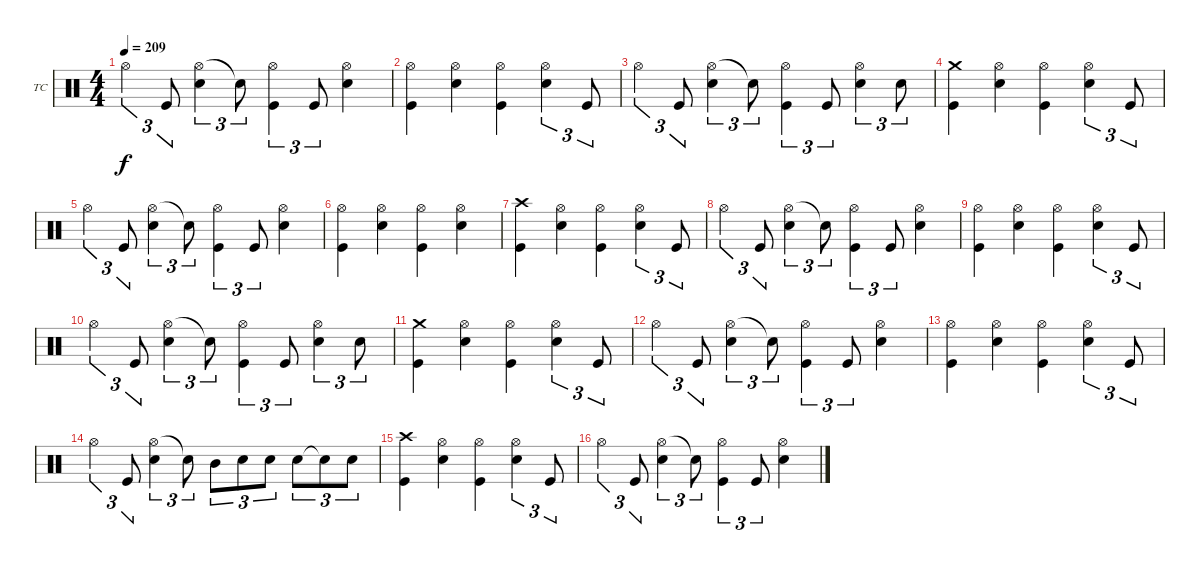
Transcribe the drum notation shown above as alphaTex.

\defaultSystemsLayout 4
\bracketExtendMode groupsimilarinstruments
\firstSystemTrackNameOrientation horizontal
\otherSystemsTrackNameOrientation horizontal
\track ("Drums - Tre Cool" "TC") {instrument percussion}
\staff {score}
\articulation defaults
\ts (4 4)
\tempo 209
\clef neutral
\ks c "Hi-Hat (open)".4{tu (3 2) dy f} "Kick (hit)".8{tu (3 2)}
("Hi-Hat (open)" "Snare (hit) 2").4{tu (3 2)} "Snare (hit) 2"{t}.8{tu (3 2)} ("Hi-Hat (open)" "Kick (hit)").4{tu (3 2)} "Kick (hit)".8{tu (3 2)} ("Hi-Hat (open)" "Snare (hit) 2").4 |
("Hi-Hat (open)" "Kick (hit)").4 ("Hi-Hat (open)" "Snare (hit) 2").4 ("Hi-Hat (open)" "Kick (hit)").4 ("Hi-Hat (open)" "Snare (hit) 2").4{tu (3 2)} "Kick (hit)".8{tu (3 2)} |
"Hi-Hat (open)".4{tu (3 2)} "Kick (hit)".8{tu (3 2)} ("Hi-Hat (open)" "Snare (hit) 2").4{tu (3 2)} "Snare (hit) 2"{t}.8{tu (3 2)} ("Hi-Hat (open)" "Kick (hit)").4{tu (3 2)} "Kick (hit)".8{tu (3 2)} ("Hi-Hat (open)" "Snare (hit) 2").4{tu (3 2)} "Snare (hit) 2".8{tu (3 2)} |
("Crash medium (hit)" "Kick (hit)").4 ("Hi-Hat (open)" "Snare (hit) 2").4 ("Hi-Hat (open)" "Kick (hit)").4 ("Hi-Hat (open)" "Snare (hit) 2").4{tu (3 2)} "Kick (hit)".8{tu (3 2)} |
"Hi-Hat (open)".4{tu (3 2)} "Kick (hit)".8{tu (3 2)} ("Hi-Hat (open)" "Snare (hit) 2").4{tu (3 2)} "Snare (hit) 2"{t}.8{tu (3 2)} ("Hi-Hat (open)" "Kick (hit)").4{tu (3 2)} "Kick (hit)".8{tu (3 2)} ("Hi-Hat (open)" "Snare (hit) 2").4 |
("Hi-Hat (open)" "Kick (hit)").4 ("Hi-Hat (open)" "Snare (hit) 2").4 ("Hi-Hat (open)" "Kick (hit)").4 ("Hi-Hat (open)" "Snare (hit) 2").4 |
("Crash high (hit)" "Kick (hit)").4 ("Hi-Hat (open)" "Snare (hit) 2").4 ("Hi-Hat (open)" "Kick (hit)").4 ("Hi-Hat (open)" "Snare (hit) 2").4{tu (3 2)} "Kick (hit)".8{tu (3 2)} |
"Hi-Hat (open)".4{tu (3 2)} "Kick (hit)".8{tu (3 2)} ("Hi-Hat (open)" "Snare (hit) 2").4{tu (3 2)} "Snare (hit) 2"{t}.8{tu (3 2)} ("Hi-Hat (open)" "Kick (hit)").4{tu (3 2)} "Kick (hit)".8{tu (3 2)} ("Hi-Hat (open)" "Snare (hit) 2").4 |
("Hi-Hat (open)" "Kick (hit)").4 ("Hi-Hat (open)" "Snare (hit) 2").4 ("Hi-Hat (open)" "Kick (hit)").4 ("Hi-Hat (open)" "Snare (hit) 2").4{tu (3 2)} "Kick (hit)".8{tu (3 2)} |
"Hi-Hat (open)".4{tu (3 2)} "Kick (hit)".8{tu (3 2)} ("Hi-Hat (open)" "Snare (hit) 2").4{tu (3 2)} "Snare (hit) 2"{t}.8{tu (3 2)} ("Hi-Hat (open)" "Kick (hit)").4{tu (3 2)} "Kick (hit)".8{tu (3 2)} ("Hi-Hat (open)" "Snare (hit) 2").4{tu (3 2)} "Snare (hit) 2".8{tu (3 2)} |
("Crash medium (hit)" "Kick (hit)").4 ("Hi-Hat (open)" "Snare (hit) 2").4 ("Hi-Hat (open)" "Kick (hit)").4 ("Hi-Hat (open)" "Snare (hit) 2").4{tu (3 2)} "Kick (hit)".8{tu (3 2)} |
"Hi-Hat (open)".4{tu (3 2)} "Kick (hit)".8{tu (3 2)} ("Hi-Hat (open)" "Snare (hit) 2").4{tu (3 2)} "Snare (hit) 2"{t}.8{tu (3 2)} ("Hi-Hat (open)" "Kick (hit)").4{tu (3 2)} "Kick (hit)".8{tu (3 2)} ("Hi-Hat (open)" "Snare (hit) 2").4 |
("Hi-Hat (open)" "Kick (hit)").4 ("Hi-Hat (open)" "Snare (hit) 2").4 ("Hi-Hat (open)" "Kick (hit)").4 ("Hi-Hat (open)" "Snare (hit) 2").4{tu (3 2)} "Kick (hit)".8{tu (3 2)} |
"Hi-Hat (open)".4{tu (3 2)} "Kick (hit)".8{tu (3 2)} ("Hi-Hat (open)" "Snare (hit) 2").4{tu (3 2)} "Snare (hit) 2"{t}.8{tu (3 2)} "Mid Tom (hit)".8{tu (3 2)} "Snare (hit) 2".8{tu (3 2)} "Snare (hit) 2".8{tu (3 2)} "Snare (hit) 2".8{tu (3 2)} "Snare (hit) 2"{t}.8{tu (3 2)} "Snare (hit) 2".8{tu (3 2)} |
("Crash high (hit)" "Kick (hit)").4 ("Hi-Hat (open)" "Snare (hit) 2").4 ("Hi-Hat (open)" "Kick (hit)").4 ("Hi-Hat (open)" "Snare (hit) 2").4{tu (3 2)} "Kick (hit)".8{tu (3 2)} |
"Hi-Hat (open)".4{tu (3 2)} "Kick (hit)".8{tu (3 2)} ("Hi-Hat (open)" "Snare (hit) 2").4{tu (3 2)} "Snare (hit) 2"{t}.8{tu (3 2)} ("Hi-Hat (open)" "Kick (hit)").4{tu (3 2)} "Kick (hit)".8{tu (3 2)} ("Hi-Hat (open)" "Snare (hit) 2").4
